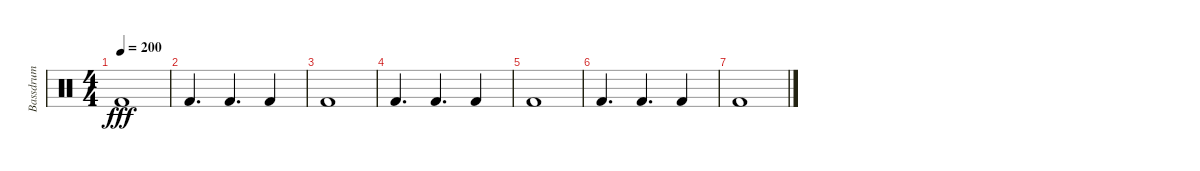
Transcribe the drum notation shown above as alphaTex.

\track ("Bassdrum" "Bassdrum") {instrument percussion}
\staff {score}
\articulation defaults
\ts (4 4)
\tempo 200
\clef neutral
\ks c "Kick (hit) 2".1{dy fff}
|
"Kick (hit) 2".4{d} "Kick (hit) 2".4{d} "Kick (hit) 2".4 |
"Kick (hit) 2".1 |
"Kick (hit) 2".4{d} "Kick (hit) 2".4{d} "Kick (hit) 2".4 |
"Kick (hit) 2".1 |
"Kick (hit) 2".4{d} "Kick (hit) 2".4{d} "Kick (hit) 2".4 |
"Kick (hit) 2".1
